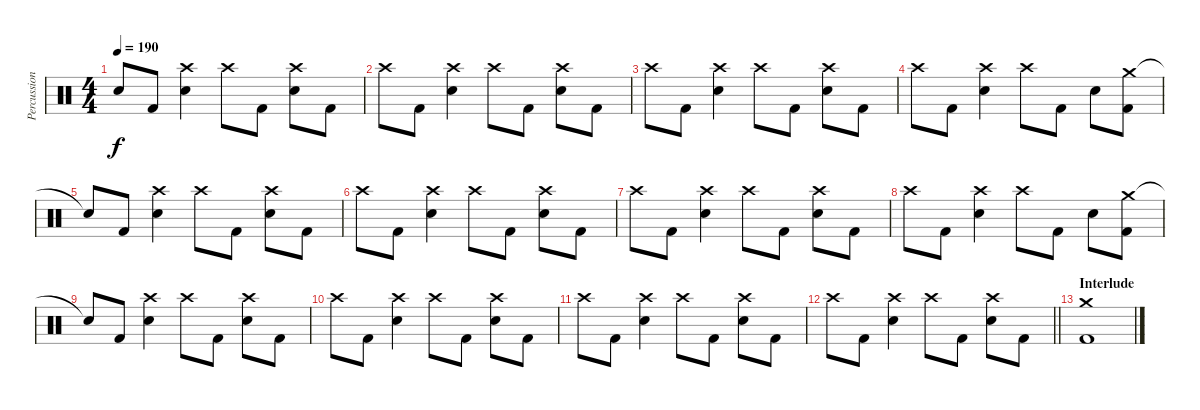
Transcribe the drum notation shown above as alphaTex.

\track ("Percussion" "Percussion") {instrument percussion}
\staff {score}
\articulation defaults
\ts (4 4)
\tempo 190
\clef neutral
\ks c "Snare (hit)"{t}.8{dy f} "Kick (hit) 2".8
("Crash high (hit)" "Electric Snare (hit)").4 "Crash high (hit)".8 "Kick (hit) 2".8 ("Crash high (hit)" "Electric Snare (hit)").8 "Kick (hit) 2".8 |
"Crash high (hit)".8 "Kick (hit) 2".8 ("Crash high (hit)" "Electric Snare (hit)").4 "Crash high (hit)".8 "Kick (hit) 2".8 ("Crash high (hit)" "Electric Snare (hit)").8 "Kick (hit) 2".8 |
"Crash high (hit)".8 "Kick (hit) 2".8 ("Crash high (hit)" "Electric Snare (hit)").4 "Crash high (hit)".8 "Kick (hit) 2".8 ("Crash high (hit)" "Electric Snare (hit)").8 "Kick (hit) 2".8 |
"Crash high (hit)".8 "Kick (hit) 2".8 ("Crash high (hit)" "Electric Snare (hit)").4 "Crash high (hit)".8 "Kick (hit) 2".8 "Electric Snare (hit)".8 ("Crash medium (hit)" "Kick (hit) 2").8 |
"Snare (hit)"{t}.8 "Kick (hit) 2".8 ("Crash high (hit)" "Electric Snare (hit)").4 "Crash high (hit)".8 "Kick (hit) 2".8 ("Crash high (hit)" "Electric Snare (hit)").8 "Kick (hit) 2".8 |
"Crash high (hit)".8 "Kick (hit) 2".8 ("Crash high (hit)" "Electric Snare (hit)").4 "Crash high (hit)".8 "Kick (hit) 2".8 ("Crash high (hit)" "Electric Snare (hit)").8 "Kick (hit) 2".8 |
"Crash high (hit)".8 "Kick (hit) 2".8 ("Crash high (hit)" "Electric Snare (hit)").4 "Crash high (hit)".8 "Kick (hit) 2".8 ("Crash high (hit)" "Electric Snare (hit)").8 "Kick (hit) 2".8 |
"Crash high (hit)".8 "Kick (hit) 2".8 ("Crash high (hit)" "Electric Snare (hit)").4 "Crash high (hit)".8 "Kick (hit) 2".8 "Electric Snare (hit)".8 ("Crash medium (hit)" "Kick (hit) 2").8 |
"Snare (hit)"{t}.8 "Kick (hit) 2".8 ("Crash high (hit)" "Electric Snare (hit)").4 "Crash high (hit)".8 "Kick (hit) 2".8 ("Crash high (hit)" "Electric Snare (hit)").8 "Kick (hit) 2".8 |
"Crash high (hit)".8 "Kick (hit) 2".8 ("Crash high (hit)" "Electric Snare (hit)").4 "Crash high (hit)".8 "Kick (hit) 2".8 ("Crash high (hit)" "Electric Snare (hit)").8 "Kick (hit) 2".8 |
"Crash high (hit)".8 "Kick (hit) 2".8 ("Crash high (hit)" "Electric Snare (hit)").4 "Crash high (hit)".8 "Kick (hit) 2".8 ("Crash high (hit)" "Electric Snare (hit)").8 "Kick (hit) 2".8 |
\barLineRight lightlight "Crash high (hit)".8 "Kick (hit) 2".8
("Crash high (hit)" "Electric Snare (hit)").4 "Crash high (hit)".8 "Kick (hit) 2".8 ("Crash high (hit)" "Electric Snare (hit)").8 "Kick (hit) 2".8 |
\section ("" "Interlude")
("Crash medium (hit)" "Kick (hit) 2").1
